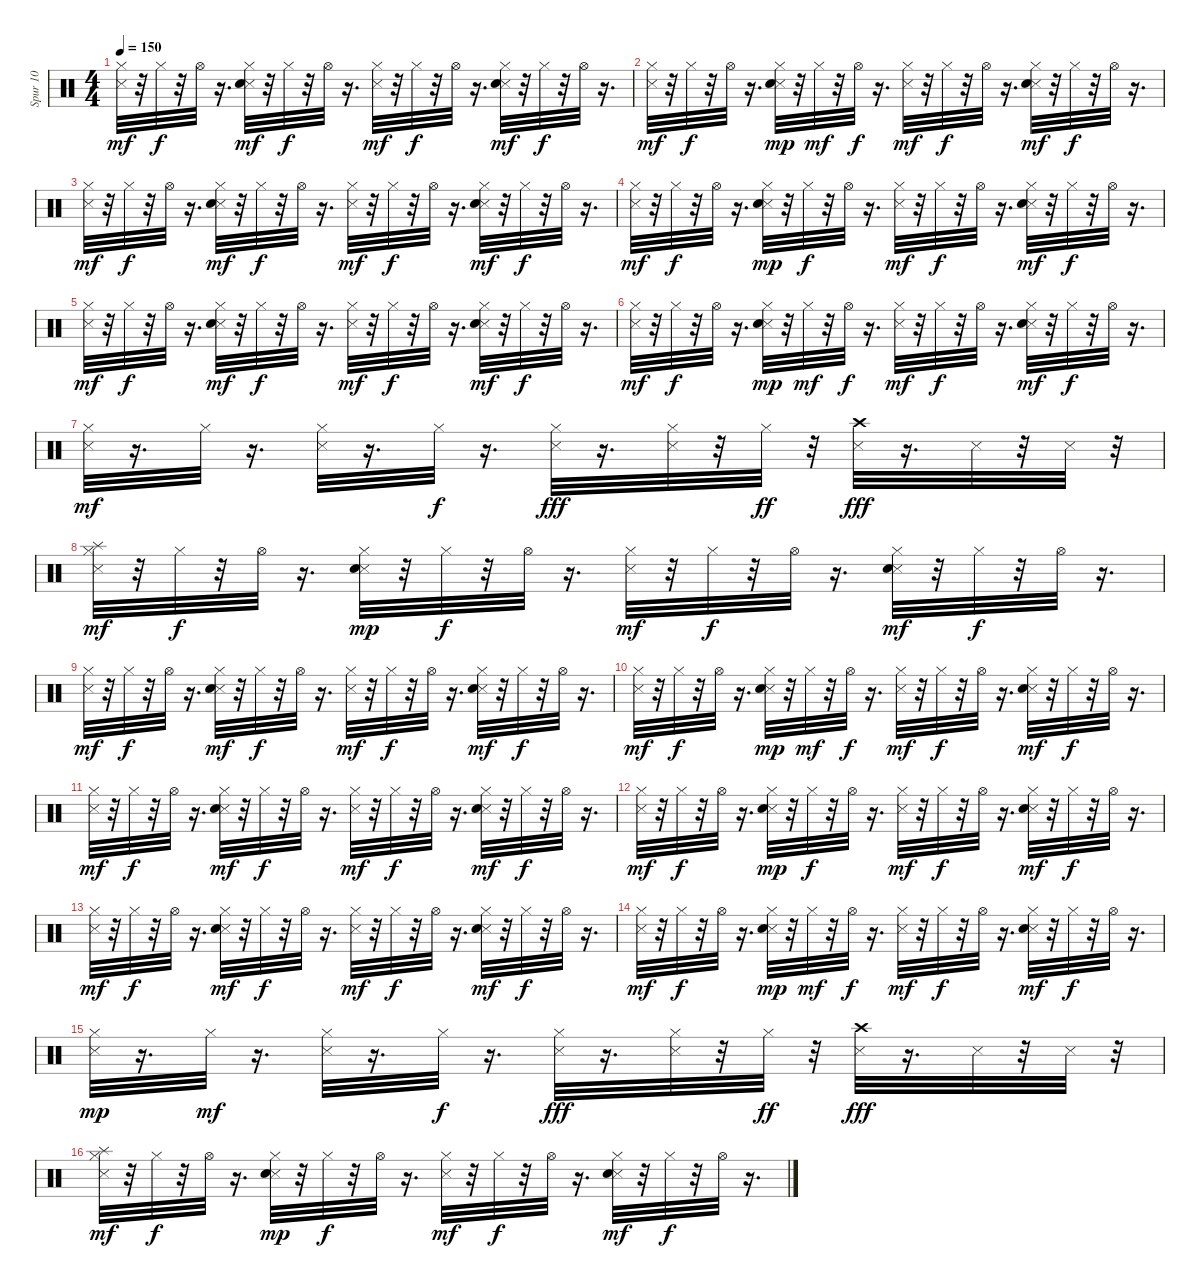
\track ("Spur 10" "Spur 10") {instrument percussion}
\staff {score}
\articulation defaults
\ts (4 4)
\tempo 150
\clef neutral
\ks c
("Metronome (hit)" "Hi-Hat (closed)").32{dy mf} r.32 "Hi-Hat (closed)".32{dy f} r.32 "Hi-Hat (open)".32 r.16{d} ("Metronome (hit)" "Snare (hit) 2" "Hi-Hat (closed)").32{dy mf} r.32 "Hi-Hat (closed)".32{dy f} r.32 "Hi-Hat (open)".32 r.16{d} ("Metronome (hit)" "Hi-Hat (closed)").32{dy mf} r.32 "Hi-Hat (closed)".32{dy f} r.32 "Hi-Hat (open)".32 r.16{d} ("Metronome (hit)" "Snare (hit) 2" "Hi-Hat (closed)").32{dy mf} r.32 "Hi-Hat (closed)".32{dy f} r.32 "Hi-Hat (open)".32 r.16{d} |
("Metronome (hit)" "Hi-Hat (closed)").32{dy mf} r.32 "Hi-Hat (closed)".32{dy f} r.32 "Hi-Hat (open)".32 r.16{d} ("Metronome (hit)" "Snare (hit) 2" "Hi-Hat (closed)").32{dy mp} r.32 "Hi-Hat (closed)".32{dy mf} r.32 "Hi-Hat (open)".32{dy f} r.16{d} ("Metronome (hit)" "Hi-Hat (closed)").32{dy mf} r.32 "Hi-Hat (closed)".32{dy f} r.32 "Hi-Hat (open)".32 r.16{d} ("Metronome (hit)" "Snare (hit) 2" "Hi-Hat (closed)").32{dy mf} r.32 "Hi-Hat (closed)".32{dy f} r.32 "Hi-Hat (open)".32 r.16{d} |
("Metronome (hit)" "Hi-Hat (closed)").32{dy mf} r.32 "Hi-Hat (closed)".32{dy f} r.32 "Hi-Hat (open)".32 r.16{d} ("Metronome (hit)" "Snare (hit) 2" "Hi-Hat (closed)").32{dy mf} r.32 "Hi-Hat (closed)".32{dy f} r.32 "Hi-Hat (open)".32 r.16{d} ("Metronome (hit)" "Hi-Hat (closed)").32{dy mf} r.32 "Hi-Hat (closed)".32{dy f} r.32 "Hi-Hat (open)".32 r.16{d} ("Metronome (hit)" "Snare (hit) 2" "Hi-Hat (closed)").32{dy mf} r.32 "Hi-Hat (closed)".32{dy f} r.32 "Hi-Hat (open)".32 r.16{d} |
("Metronome (hit)" "Hi-Hat (closed)").32{dy mf} r.32 "Hi-Hat (closed)".32{dy f} r.32 "Hi-Hat (open)".32 r.16{d} ("Metronome (hit)" "Snare (hit) 2" "Hi-Hat (closed)").32{dy mp} r.32 "Hi-Hat (closed)".32{dy f} r.32 "Hi-Hat (open)".32 r.16{d} ("Metronome (hit)" "Hi-Hat (closed)").32{dy mf} r.32 "Hi-Hat (closed)".32{dy f} r.32 "Hi-Hat (open)".32 r.16{d} ("Metronome (hit)" "Snare (hit) 2" "Hi-Hat (closed)").32{dy mf} r.32 "Hi-Hat (closed)".32{dy f} r.32 "Hi-Hat (open)".32 r.16{d} |
("Metronome (hit)" "Hi-Hat (closed)").32{dy mf} r.32 "Hi-Hat (closed)".32{dy f} r.32 "Hi-Hat (open)".32 r.16{d} ("Metronome (hit)" "Snare (hit) 2" "Hi-Hat (closed)").32{dy mf} r.32 "Hi-Hat (closed)".32{dy f} r.32 "Hi-Hat (open)".32 r.16{d} ("Metronome (hit)" "Hi-Hat (closed)").32{dy mf} r.32 "Hi-Hat (closed)".32{dy f} r.32 "Hi-Hat (open)".32 r.16{d} ("Metronome (hit)" "Snare (hit) 2" "Hi-Hat (closed)").32{dy mf} r.32 "Hi-Hat (closed)".32{dy f} r.32 "Hi-Hat (open)".32 r.16{d} |
("Metronome (hit)" "Hi-Hat (closed)").32{dy mf} r.32 "Hi-Hat (closed)".32{dy f} r.32 "Hi-Hat (open)".32 r.16{d} ("Metronome (hit)" "Snare (hit) 2" "Hi-Hat (closed)").32{dy mp} r.32 "Hi-Hat (closed)".32{dy mf} r.32 "Hi-Hat (open)".32{dy f} r.16{d} ("Metronome (hit)" "Hi-Hat (closed)").32{dy mf} r.32 "Hi-Hat (closed)".32{dy f} r.32 "Hi-Hat (open)".32 r.16{d} ("Metronome (hit)" "Snare (hit) 2" "Hi-Hat (closed)").32{dy mf} r.32 "Hi-Hat (closed)".32{dy f} r.32 "Hi-Hat (open)".32 r.16{d} |
("Metronome (hit)" "Hi-Hat (closed)").32{dy mf} r.16{d} "Hi-Hat (closed)".32 r.16{d} ("Metronome (hit)" "Hi-Hat (closed)").32 r.16{d} "Hi-Hat (closed)".32{dy f} r.16{d} ("Metronome (hit)" "Hi-Hat (closed)").32{dy fff} r.16{d} ("Metronome (hit)" "Hi-Hat (closed)").32 r.32 "Hi-Hat (closed)".32{dy ff} r.32 ("Metronome (hit)" "Crash high (hit)").32{dy fff} r.16{d} "Metronome (hit)".32 r.32 "Metronome (hit)".32 r.32 |
("Splash (hit)" "Metronome (hit)" "Hi-Hat (closed)").32{dy mf} r.32 "Hi-Hat (closed)".32{dy f} r.32 "Hi-Hat (open)".32 r.16{d} ("Metronome (hit)" "Snare (hit) 2" "Hi-Hat (closed)").32{dy mp} r.32 "Hi-Hat (closed)".32{dy f} r.32 "Hi-Hat (open)".32 r.16{d} ("Metronome (hit)" "Hi-Hat (closed)").32{dy mf} r.32 "Hi-Hat (closed)".32{dy f} r.32 "Hi-Hat (open)".32 r.16{d} ("Metronome (hit)" "Snare (hit) 2" "Hi-Hat (closed)").32{dy mf} r.32 "Hi-Hat (closed)".32{dy f} r.32 "Hi-Hat (open)".32 r.16{d} |
("Metronome (hit)" "Hi-Hat (closed)").32{dy mf} r.32 "Hi-Hat (closed)".32{dy f} r.32 "Hi-Hat (open)".32 r.16{d} ("Metronome (hit)" "Snare (hit) 2" "Hi-Hat (closed)").32{dy mf} r.32 "Hi-Hat (closed)".32{dy f} r.32 "Hi-Hat (open)".32 r.16{d} ("Metronome (hit)" "Hi-Hat (closed)").32{dy mf} r.32 "Hi-Hat (closed)".32{dy f} r.32 "Hi-Hat (open)".32 r.16{d} ("Metronome (hit)" "Snare (hit) 2" "Hi-Hat (closed)").32{dy mf} r.32 "Hi-Hat (closed)".32{dy f} r.32 "Hi-Hat (open)".32 r.16{d} |
("Metronome (hit)" "Hi-Hat (closed)").32{dy mf} r.32 "Hi-Hat (closed)".32{dy f} r.32 "Hi-Hat (open)".32 r.16{d} ("Metronome (hit)" "Snare (hit) 2" "Hi-Hat (closed)").32{dy mp} r.32 "Hi-Hat (closed)".32{dy mf} r.32 "Hi-Hat (open)".32{dy f} r.16{d} ("Metronome (hit)" "Hi-Hat (closed)").32{dy mf} r.32 "Hi-Hat (closed)".32{dy f} r.32 "Hi-Hat (open)".32 r.16{d} ("Metronome (hit)" "Snare (hit) 2" "Hi-Hat (closed)").32{dy mf} r.32 "Hi-Hat (closed)".32{dy f} r.32 "Hi-Hat (open)".32 r.16{d} |
("Metronome (hit)" "Hi-Hat (closed)").32{dy mf} r.32 "Hi-Hat (closed)".32{dy f} r.32 "Hi-Hat (open)".32 r.16{d} ("Metronome (hit)" "Snare (hit) 2" "Hi-Hat (closed)").32{dy mf} r.32 "Hi-Hat (closed)".32{dy f} r.32 "Hi-Hat (open)".32 r.16{d} ("Metronome (hit)" "Hi-Hat (closed)").32{dy mf} r.32 "Hi-Hat (closed)".32{dy f} r.32 "Hi-Hat (open)".32 r.16{d} ("Metronome (hit)" "Snare (hit) 2" "Hi-Hat (closed)").32{dy mf} r.32 "Hi-Hat (closed)".32{dy f} r.32 "Hi-Hat (open)".32 r.16{d} |
("Metronome (hit)" "Hi-Hat (closed)").32{dy mf} r.32 "Hi-Hat (closed)".32{dy f} r.32 "Hi-Hat (open)".32 r.16{d} ("Metronome (hit)" "Snare (hit) 2" "Hi-Hat (closed)").32{dy mp} r.32 "Hi-Hat (closed)".32{dy f} r.32 "Hi-Hat (open)".32 r.16{d} ("Metronome (hit)" "Hi-Hat (closed)").32{dy mf} r.32 "Hi-Hat (closed)".32{dy f} r.32 "Hi-Hat (open)".32 r.16{d} ("Metronome (hit)" "Snare (hit) 2" "Hi-Hat (closed)").32{dy mf} r.32 "Hi-Hat (closed)".32{dy f} r.32 "Hi-Hat (open)".32 r.16{d} |
("Metronome (hit)" "Hi-Hat (closed)").32{dy mf} r.32 "Hi-Hat (closed)".32{dy f} r.32 "Hi-Hat (open)".32 r.16{d} ("Metronome (hit)" "Snare (hit) 2" "Hi-Hat (closed)").32{dy mf} r.32 "Hi-Hat (closed)".32{dy f} r.32 "Hi-Hat (open)".32 r.16{d} ("Metronome (hit)" "Hi-Hat (closed)").32{dy mf} r.32 "Hi-Hat (closed)".32{dy f} r.32 "Hi-Hat (open)".32 r.16{d} ("Metronome (hit)" "Snare (hit) 2" "Hi-Hat (closed)").32{dy mf} r.32 "Hi-Hat (closed)".32{dy f} r.32 "Hi-Hat (open)".32 r.16{d} |
("Metronome (hit)" "Hi-Hat (closed)").32{dy mf} r.32 "Hi-Hat (closed)".32{dy f} r.32 "Hi-Hat (open)".32 r.16{d} ("Metronome (hit)" "Snare (hit) 2" "Hi-Hat (closed)").32{dy mp} r.32 "Hi-Hat (closed)".32{dy mf} r.32 "Hi-Hat (open)".32{dy f} r.16{d} ("Metronome (hit)" "Hi-Hat (closed)").32{dy mf} r.32 "Hi-Hat (closed)".32{dy f} r.32 "Hi-Hat (open)".32 r.16{d} ("Metronome (hit)" "Snare (hit) 2" "Hi-Hat (closed)").32{dy mf} r.32 "Hi-Hat (closed)".32{dy f} r.32 "Hi-Hat (open)".32 r.16{d} |
("Metronome (hit)" "Hi-Hat (closed)").32{dy mp} r.16{d} "Hi-Hat (closed)".32{dy mf} r.16{d} ("Metronome (hit)" "Hi-Hat (closed)").32 r.16{d} "Hi-Hat (closed)".32{dy f} r.16{d} ("Metronome (hit)" "Hi-Hat (closed)").32{dy fff} r.16{d} ("Metronome (hit)" "Hi-Hat (closed)").32 r.32 "Hi-Hat (closed)".32{dy ff} r.32 ("Metronome (hit)" "Crash high (hit)").32{dy fff} r.16{d} "Metronome (hit)".32 r.32 "Metronome (hit)".32 r.32 |
("Splash (hit)" "Metronome (hit)" "Hi-Hat (closed)").32{dy mf} r.32 "Hi-Hat (closed)".32{dy f} r.32 "Hi-Hat (open)".32 r.16{d} ("Metronome (hit)" "Snare (hit) 2" "Hi-Hat (closed)").32{dy mp} r.32 "Hi-Hat (closed)".32{dy f} r.32 "Hi-Hat (open)".32 r.16{d} ("Metronome (hit)" "Hi-Hat (closed)").32{dy mf} r.32 "Hi-Hat (closed)".32{dy f} r.32 "Hi-Hat (open)".32 r.16{d} ("Metronome (hit)" "Snare (hit) 2" "Hi-Hat (closed)").32{dy mf} r.32 "Hi-Hat (closed)".32{dy f} r.32 "Hi-Hat (open)".32 r.16{d}
